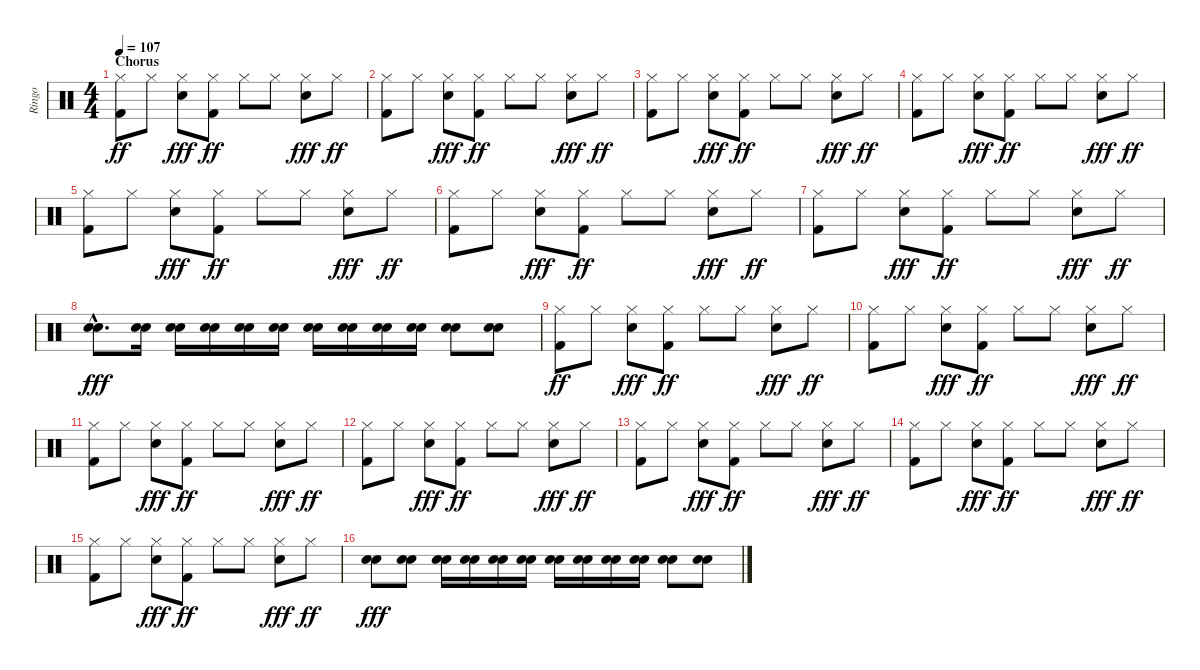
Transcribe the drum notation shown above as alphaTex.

\track ("Ringo" "Ringo") {instrument percussion}
\staff {score}
\articulation defaults
\ts (4 4)
\section ("" "Chorus")
\tempo 107
\clef neutral
\ks c
("Hi-Hat (closed)" "Kick (hit) 2").8{dy ff} "Hi-Hat (closed)".8 ("Hi-Hat (closed)" "Snare (hit) 2").8{dy fff} ("Hi-Hat (closed)" "Kick (hit) 2").8{dy ff} "Hi-Hat (closed)".8 "Hi-Hat (closed)".8 ("Hi-Hat (closed)" "Snare (hit) 2").8{dy fff} "Hi-Hat (closed)".8{dy ff} |
("Hi-Hat (closed)" "Kick (hit) 2").8 "Hi-Hat (closed)".8 ("Hi-Hat (closed)" "Snare (hit) 2").8{dy fff} ("Hi-Hat (closed)" "Kick (hit) 2").8{dy ff} "Hi-Hat (closed)".8 "Hi-Hat (closed)".8 ("Hi-Hat (closed)" "Snare (hit) 2").8{dy fff} "Hi-Hat (closed)".8{dy ff} |
("Hi-Hat (closed)" "Kick (hit) 2").8 "Hi-Hat (closed)".8 ("Hi-Hat (closed)" "Snare (hit) 2").8{dy fff} ("Hi-Hat (closed)" "Kick (hit) 2").8{dy ff} "Hi-Hat (closed)".8 "Hi-Hat (closed)".8 ("Hi-Hat (closed)" "Snare (hit) 2").8{dy fff} "Hi-Hat (closed)".8{dy ff} |
("Hi-Hat (closed)" "Kick (hit) 2").8 "Hi-Hat (closed)".8 ("Hi-Hat (closed)" "Snare (hit) 2").8{dy fff} ("Hi-Hat (closed)" "Kick (hit) 2").8{dy ff} "Hi-Hat (closed)".8 "Hi-Hat (closed)".8 ("Hi-Hat (closed)" "Snare (hit) 2").8{dy fff} "Hi-Hat (closed)".8{dy ff} |
("Hi-Hat (closed)" "Kick (hit) 2").8 "Hi-Hat (closed)".8 ("Hi-Hat (closed)" "Snare (hit) 2").8{dy fff} ("Hi-Hat (closed)" "Kick (hit) 2").8{dy ff} "Hi-Hat (closed)".8 "Hi-Hat (closed)".8 ("Hi-Hat (closed)" "Snare (hit) 2").8{dy fff} "Hi-Hat (closed)".8{dy ff} |
("Hi-Hat (closed)" "Kick (hit) 2").8 "Hi-Hat (closed)".8 ("Hi-Hat (closed)" "Snare (hit) 2").8{dy fff} ("Hi-Hat (closed)" "Kick (hit) 2").8{dy ff} "Hi-Hat (closed)".8 "Hi-Hat (closed)".8 ("Hi-Hat (closed)" "Snare (hit) 2").8{dy fff} "Hi-Hat (closed)".8{dy ff} |
("Hi-Hat (closed)" "Kick (hit) 2").8 "Hi-Hat (closed)".8 ("Hi-Hat (closed)" "Snare (hit) 2").8{dy fff} ("Hi-Hat (closed)" "Kick (hit) 2").8{dy ff} "Hi-Hat (closed)".8 "Hi-Hat (closed)".8 ("Hi-Hat (closed)" "Snare (hit) 2").8{dy fff} "Hi-Hat (closed)".8{dy ff} |
("Electric Snare (hit)"{hac} "Snare (hit) 2"{hac}).8{d dy fff} ("Electric Snare (hit)" "Snare (hit) 2").16 ("Electric Snare (hit)" "Snare (hit) 2").16 ("Electric Snare (hit)" "Snare (hit) 2").16 ("Electric Snare (hit)" "Snare (hit) 2").16 ("Electric Snare (hit)" "Snare (hit) 2").16 ("Electric Snare (hit)" "Snare (hit) 2").16 ("Electric Snare (hit)" "Snare (hit) 2").16 ("Electric Snare (hit)" "Snare (hit) 2").16 ("Electric Snare (hit)" "Snare (hit) 2").16 ("Electric Snare (hit)" "Snare (hit) 2").8 ("Electric Snare (hit)" "Snare (hit) 2").8 |
("Hi-Hat (closed)" "Kick (hit) 2").8{dy ff} "Hi-Hat (closed)".8 ("Hi-Hat (closed)" "Snare (hit) 2").8{dy fff} ("Hi-Hat (closed)" "Kick (hit) 2").8{dy ff} "Hi-Hat (closed)".8 "Hi-Hat (closed)".8 ("Hi-Hat (closed)" "Snare (hit) 2").8{dy fff} "Hi-Hat (closed)".8{dy ff} |
("Hi-Hat (closed)" "Kick (hit) 2").8 "Hi-Hat (closed)".8 ("Hi-Hat (closed)" "Snare (hit) 2").8{dy fff} ("Hi-Hat (closed)" "Kick (hit) 2").8{dy ff} "Hi-Hat (closed)".8 "Hi-Hat (closed)".8 ("Hi-Hat (closed)" "Snare (hit) 2").8{dy fff} "Hi-Hat (closed)".8{dy ff} |
("Hi-Hat (closed)" "Kick (hit) 2").8 "Hi-Hat (closed)".8 ("Hi-Hat (closed)" "Snare (hit) 2").8{dy fff} ("Hi-Hat (closed)" "Kick (hit) 2").8{dy ff} "Hi-Hat (closed)".8 "Hi-Hat (closed)".8 ("Hi-Hat (closed)" "Snare (hit) 2").8{dy fff} "Hi-Hat (closed)".8{dy ff} |
("Hi-Hat (closed)" "Kick (hit) 2").8 "Hi-Hat (closed)".8 ("Hi-Hat (closed)" "Snare (hit) 2").8{dy fff} ("Hi-Hat (closed)" "Kick (hit) 2").8{dy ff} "Hi-Hat (closed)".8 "Hi-Hat (closed)".8 ("Hi-Hat (closed)" "Snare (hit) 2").8{dy fff} "Hi-Hat (closed)".8{dy ff} |
("Hi-Hat (closed)" "Kick (hit) 2").8 "Hi-Hat (closed)".8 ("Hi-Hat (closed)" "Snare (hit) 2").8{dy fff} ("Hi-Hat (closed)" "Kick (hit) 2").8{dy ff} "Hi-Hat (closed)".8 "Hi-Hat (closed)".8 ("Hi-Hat (closed)" "Snare (hit) 2").8{dy fff} "Hi-Hat (closed)".8{dy ff} |
("Hi-Hat (closed)" "Kick (hit) 2").8 "Hi-Hat (closed)".8 ("Hi-Hat (closed)" "Snare (hit) 2").8{dy fff} ("Hi-Hat (closed)" "Kick (hit) 2").8{dy ff} "Hi-Hat (closed)".8 "Hi-Hat (closed)".8 ("Hi-Hat (closed)" "Snare (hit) 2").8{dy fff} "Hi-Hat (closed)".8{dy ff} |
("Hi-Hat (closed)" "Kick (hit) 2").8 "Hi-Hat (closed)".8 ("Hi-Hat (closed)" "Snare (hit) 2").8{dy fff} ("Hi-Hat (closed)" "Kick (hit) 2").8{dy ff} "Hi-Hat (closed)".8 "Hi-Hat (closed)".8 ("Hi-Hat (closed)" "Snare (hit) 2").8{dy fff} "Hi-Hat (closed)".8{dy ff} |
("Electric Snare (hit)" "Snare (hit) 2").8{dy fff} ("Electric Snare (hit)" "Snare (hit) 2").8 ("Electric Snare (hit)" "Snare (hit) 2").16 ("Electric Snare (hit)" "Snare (hit) 2").16 ("Electric Snare (hit)" "Snare (hit) 2").16 ("Electric Snare (hit)" "Snare (hit) 2").16 ("Electric Snare (hit)" "Snare (hit) 2").16 ("Electric Snare (hit)" "Snare (hit) 2").16 ("Electric Snare (hit)" "Snare (hit) 2").16 ("Electric Snare (hit)" "Snare (hit) 2").16 ("Electric Snare (hit)" "Snare (hit) 2").8 ("Electric Snare (hit)" "Snare (hit) 2").8
